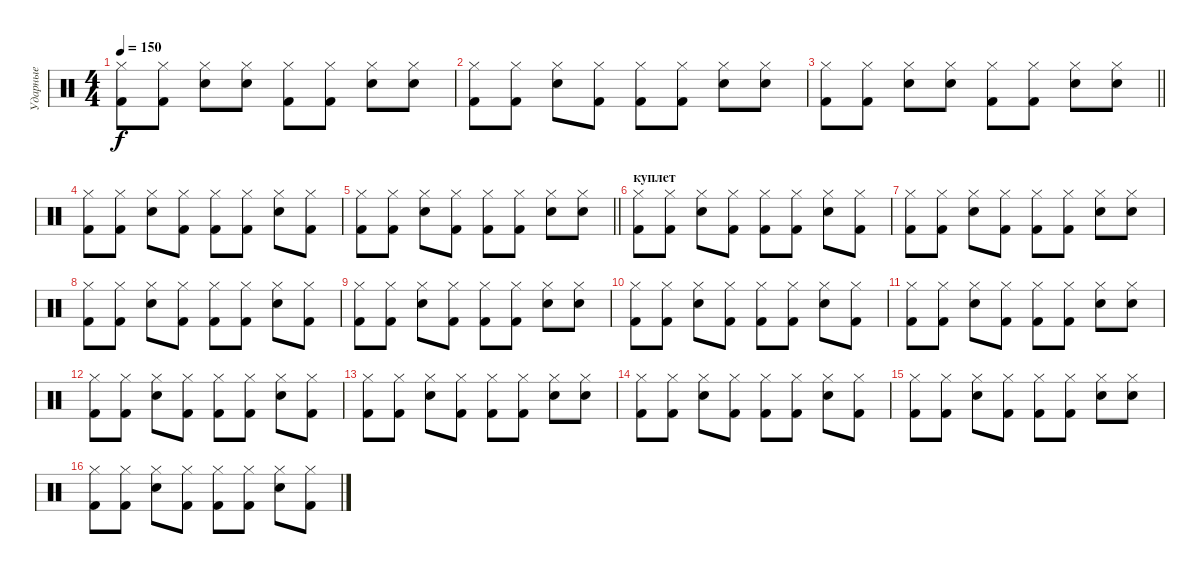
\track ("Ударные" "Ударные") {instrument percussion}
\staff {score}
\articulation defaults
\ts (4 4)
\tempo 150
\clef neutral
\ks c
("Hi-Hat (closed)" "Kick (hit) 2").8{dy f} ("Hi-Hat (closed)" "Kick (hit) 2").8 ("Hi-Hat (closed)" "Snare (hit) 2").8 ("Hi-Hat (closed)" "Snare (hit) 2").8 ("Hi-Hat (closed)" "Kick (hit) 2").8 ("Hi-Hat (closed)" "Kick (hit) 2").8 ("Hi-Hat (closed)" "Snare (hit) 2").8 ("Hi-Hat (closed)" "Snare (hit) 2").8 |
("Hi-Hat (closed)" "Kick (hit) 2").8 ("Hi-Hat (closed)" "Kick (hit) 2").8 ("Hi-Hat (closed)" "Snare (hit) 2").8 ("Hi-Hat (closed)" "Kick (hit) 2").8 ("Hi-Hat (closed)" "Kick (hit) 2").8 ("Hi-Hat (closed)" "Kick (hit) 2").8 ("Hi-Hat (closed)" "Snare (hit) 2").8 ("Hi-Hat (closed)" "Snare (hit) 2").8 |
\barLineRight lightlight
("Hi-Hat (closed)" "Kick (hit) 2").8 ("Hi-Hat (closed)" "Kick (hit) 2").8 ("Hi-Hat (closed)" "Snare (hit) 2").8 ("Hi-Hat (closed)" "Snare (hit) 2").8 ("Hi-Hat (closed)" "Kick (hit) 2").8 ("Hi-Hat (closed)" "Kick (hit) 2").8 ("Hi-Hat (closed)" "Snare (hit) 2").8 ("Hi-Hat (closed)" "Snare (hit) 2").8 |
\section ("" "")
("Hi-Hat (closed)" "Kick (hit) 2").8 ("Hi-Hat (closed)" "Kick (hit) 2").8 ("Hi-Hat (closed)" "Snare (hit) 2").8 ("Hi-Hat (closed)" "Kick (hit) 2").8 ("Hi-Hat (closed)" "Kick (hit) 2").8 ("Hi-Hat (closed)" "Kick (hit) 2").8 ("Hi-Hat (closed)" "Snare (hit) 2").8 ("Hi-Hat (closed)" "Kick (hit) 2").8 |
\barLineRight lightlight
("Hi-Hat (closed)" "Kick (hit) 2").8 ("Hi-Hat (closed)" "Kick (hit) 2").8 ("Hi-Hat (closed)" "Snare (hit) 2").8 ("Hi-Hat (closed)" "Kick (hit) 2").8 ("Hi-Hat (closed)" "Kick (hit) 2").8 ("Hi-Hat (closed)" "Kick (hit) 2").8 ("Hi-Hat (closed)" "Snare (hit) 2").8 ("Hi-Hat (closed)" "Snare (hit) 2").8 |
\section ("" "куплет")
("Hi-Hat (closed)" "Kick (hit) 2").8 ("Hi-Hat (closed)" "Kick (hit) 2").8 ("Hi-Hat (closed)" "Snare (hit) 2").8 ("Hi-Hat (closed)" "Kick (hit) 2").8 ("Hi-Hat (closed)" "Kick (hit) 2").8 ("Hi-Hat (closed)" "Kick (hit) 2").8 ("Hi-Hat (closed)" "Snare (hit) 2").8 ("Hi-Hat (closed)" "Kick (hit) 2").8 |
("Hi-Hat (closed)" "Kick (hit) 2").8 ("Hi-Hat (closed)" "Kick (hit) 2").8 ("Hi-Hat (closed)" "Snare (hit) 2").8 ("Hi-Hat (closed)" "Kick (hit) 2").8 ("Hi-Hat (closed)" "Kick (hit) 2").8 ("Hi-Hat (closed)" "Kick (hit) 2").8 ("Hi-Hat (closed)" "Snare (hit) 2").8 ("Hi-Hat (closed)" "Snare (hit) 2").8 |
("Hi-Hat (closed)" "Kick (hit) 2").8 ("Hi-Hat (closed)" "Kick (hit) 2").8 ("Hi-Hat (closed)" "Snare (hit) 2").8 ("Hi-Hat (closed)" "Kick (hit) 2").8 ("Hi-Hat (closed)" "Kick (hit) 2").8 ("Hi-Hat (closed)" "Kick (hit) 2").8 ("Hi-Hat (closed)" "Snare (hit) 2").8 ("Hi-Hat (closed)" "Kick (hit) 2").8 |
("Hi-Hat (closed)" "Kick (hit) 2").8 ("Hi-Hat (closed)" "Kick (hit) 2").8 ("Hi-Hat (closed)" "Snare (hit) 2").8 ("Hi-Hat (closed)" "Kick (hit) 2").8 ("Hi-Hat (closed)" "Kick (hit) 2").8 ("Hi-Hat (closed)" "Kick (hit) 2").8 ("Hi-Hat (closed)" "Snare (hit) 2").8 ("Hi-Hat (closed)" "Snare (hit) 2").8 |
("Hi-Hat (closed)" "Kick (hit) 2").8 ("Hi-Hat (closed)" "Kick (hit) 2").8 ("Hi-Hat (closed)" "Snare (hit) 2").8 ("Hi-Hat (closed)" "Kick (hit) 2").8 ("Hi-Hat (closed)" "Kick (hit) 2").8 ("Hi-Hat (closed)" "Kick (hit) 2").8 ("Hi-Hat (closed)" "Snare (hit) 2").8 ("Hi-Hat (closed)" "Kick (hit) 2").8 |
("Hi-Hat (closed)" "Kick (hit) 2").8 ("Hi-Hat (closed)" "Kick (hit) 2").8 ("Hi-Hat (closed)" "Snare (hit) 2").8 ("Hi-Hat (closed)" "Kick (hit) 2").8 ("Hi-Hat (closed)" "Kick (hit) 2").8 ("Hi-Hat (closed)" "Kick (hit) 2").8 ("Hi-Hat (closed)" "Snare (hit) 2").8 ("Hi-Hat (closed)" "Snare (hit) 2").8 |
("Hi-Hat (closed)" "Kick (hit) 2").8 ("Hi-Hat (closed)" "Kick (hit) 2").8 ("Hi-Hat (closed)" "Snare (hit) 2").8 ("Hi-Hat (closed)" "Kick (hit) 2").8 ("Hi-Hat (closed)" "Kick (hit) 2").8 ("Hi-Hat (closed)" "Kick (hit) 2").8 ("Hi-Hat (closed)" "Snare (hit) 2").8 ("Hi-Hat (closed)" "Kick (hit) 2").8 |
("Hi-Hat (closed)" "Kick (hit) 2").8 ("Hi-Hat (closed)" "Kick (hit) 2").8 ("Hi-Hat (closed)" "Snare (hit) 2").8 ("Hi-Hat (closed)" "Kick (hit) 2").8 ("Hi-Hat (closed)" "Kick (hit) 2").8 ("Hi-Hat (closed)" "Kick (hit) 2").8 ("Hi-Hat (closed)" "Snare (hit) 2").8 ("Hi-Hat (closed)" "Snare (hit) 2").8 |
("Hi-Hat (closed)" "Kick (hit) 2").8 ("Hi-Hat (closed)" "Kick (hit) 2").8 ("Hi-Hat (closed)" "Snare (hit) 2").8 ("Hi-Hat (closed)" "Kick (hit) 2").8 ("Hi-Hat (closed)" "Kick (hit) 2").8 ("Hi-Hat (closed)" "Kick (hit) 2").8 ("Hi-Hat (closed)" "Snare (hit) 2").8 ("Hi-Hat (closed)" "Kick (hit) 2").8 |
("Hi-Hat (closed)" "Kick (hit) 2").8 ("Hi-Hat (closed)" "Kick (hit) 2").8 ("Hi-Hat (closed)" "Snare (hit) 2").8 ("Hi-Hat (closed)" "Kick (hit) 2").8 ("Hi-Hat (closed)" "Kick (hit) 2").8 ("Hi-Hat (closed)" "Kick (hit) 2").8 ("Hi-Hat (closed)" "Snare (hit) 2").8 ("Hi-Hat (closed)" "Snare (hit) 2").8 |
("Hi-Hat (closed)" "Kick (hit) 2").8 ("Hi-Hat (closed)" "Kick (hit) 2").8 ("Hi-Hat (closed)" "Snare (hit) 2").8 ("Hi-Hat (closed)" "Kick (hit) 2").8 ("Hi-Hat (closed)" "Kick (hit) 2").8 ("Hi-Hat (closed)" "Kick (hit) 2").8 ("Hi-Hat (closed)" "Snare (hit) 2").8 ("Hi-Hat (closed)" "Kick (hit) 2").8
